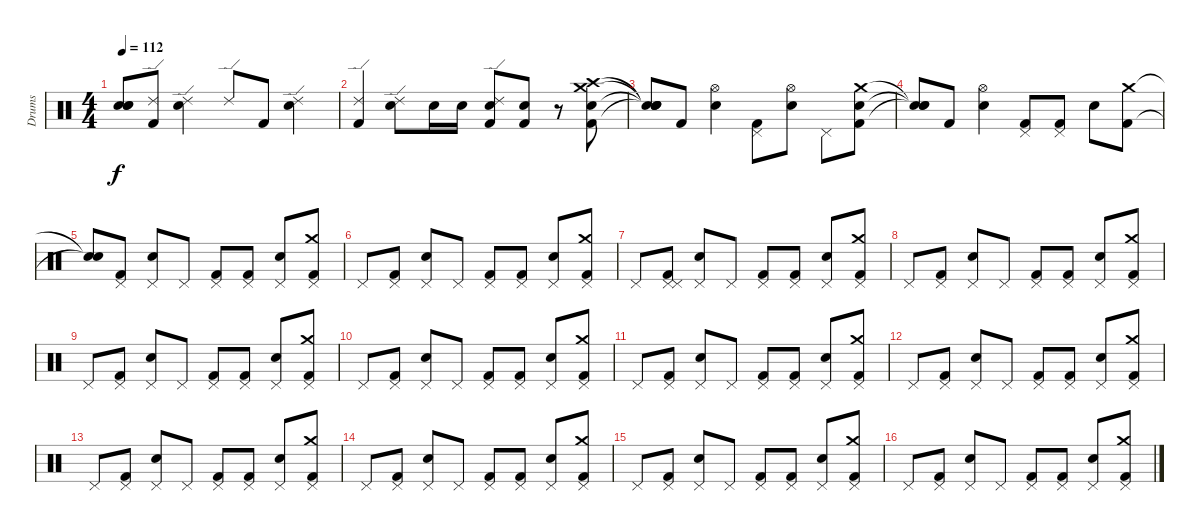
\track ("Drums" "Drums") {instrument percussion}
\staff {score}
\articulation defaults
\ts (4 4)
\tempo 112
\clef neutral
\ks c
("Snare (hit)"{t} "Snare (hit)"{t} "Snare (hit)"{t}).8{dy f} ("Kick (hit) 2" "Ride (edge) 2").8 ("Snare (hit) 2" "Ride (edge) 2").4 "Ride (edge) 2".8 "Kick (hit) 2".8 ("Snare (hit) 2" "Ride (edge) 2").4 |
("Kick (hit) 2" "Ride (edge) 2").4 ("Snare (hit) 2" "Ride (edge) 2").8 "Snare (hit) 2".16 "Snare (hit) 2".16 ("Kick (hit) 2" "Snare (hit) 2" "Ride (edge) 2").8 ("Kick (hit) 2" "Snare (hit) 2").8 r.8 ("Crash medium (hit)" "Snare (hit) 2" "Kick (hit) 2" "Crash high (hit)").8 |
("Snare (hit)"{t} "Snare (hit)"{t} "Snare (hit)"{t} "Snare (hit)"{t}).8 "Kick (hit) 2".8 ("Hi-Hat (open)" "Snare (hit) 2").4 ("Pedal Hi-Hat (hit)" "Kick (hit) 2").8 ("Hi-Hat (open)" "Snare (hit) 2").8 "Pedal Hi-Hat (hit)".8 ("Crash medium (hit)" "Snare (hit) 2" "Kick (hit) 2").8 |
("Snare (hit)"{t} "Snare (hit)"{t} "Snare (hit)"{t}).8 "Kick (hit) 2".8 ("Hi-Hat (open)" "Snare (hit) 2").4 ("Kick (hit) 2" "Pedal Hi-Hat (hit)").8 ("Kick (hit) 2" "Pedal Hi-Hat (hit)").8 "Snare (hit) 2".8 ("Crash medium (hit)" "Kick (hit) 2").8 |
("Snare (hit)"{t} "Snare (hit)"{t}).8 ("Pedal Hi-Hat (hit)" "Kick (hit) 2").8 ("Pedal Hi-Hat (hit)" "Snare (hit) 2").8 "Pedal Hi-Hat (hit)".8 ("Pedal Hi-Hat (hit)" "Kick (hit) 2").8 ("Pedal Hi-Hat (hit)" "Kick (hit) 2").8 ("Pedal Hi-Hat (hit)" "Snare (hit) 2").8 ("Pedal Hi-Hat (hit)" "Crash medium (hit)" "Kick (hit) 2").8 |
"Pedal Hi-Hat (hit)".8 ("Pedal Hi-Hat (hit)" "Kick (hit) 2").8 ("Pedal Hi-Hat (hit)" "Snare (hit) 2").8 "Pedal Hi-Hat (hit)".8 ("Pedal Hi-Hat (hit)" "Kick (hit) 2").8 ("Pedal Hi-Hat (hit)" "Kick (hit) 2").8 ("Pedal Hi-Hat (hit)" "Snare (hit) 2").8 ("Pedal Hi-Hat (hit)" "Crash medium (hit)" "Kick (hit) 2").8 |
"Pedal Hi-Hat (hit)".8 ("Pedal Hi-Hat (hit)" "Pedal Hi-Hat (hit)" "Kick (hit) 2").8 ("Pedal Hi-Hat (hit)" "Snare (hit) 2").8 "Pedal Hi-Hat (hit)".8 ("Pedal Hi-Hat (hit)" "Kick (hit) 2").8 ("Pedal Hi-Hat (hit)" "Kick (hit) 2").8 ("Pedal Hi-Hat (hit)" "Snare (hit) 2").8 ("Pedal Hi-Hat (hit)" "Crash medium (hit)" "Kick (hit) 2").8 |
"Pedal Hi-Hat (hit)".8 ("Pedal Hi-Hat (hit)" "Kick (hit) 2").8 ("Pedal Hi-Hat (hit)" "Snare (hit) 2").8 "Pedal Hi-Hat (hit)".8 ("Pedal Hi-Hat (hit)" "Kick (hit) 2").8 ("Pedal Hi-Hat (hit)" "Kick (hit) 2").8 ("Pedal Hi-Hat (hit)" "Snare (hit) 2").8 ("Pedal Hi-Hat (hit)" "Crash medium (hit)" "Kick (hit) 2").8 |
"Pedal Hi-Hat (hit)".8 ("Pedal Hi-Hat (hit)" "Kick (hit) 2").8 ("Pedal Hi-Hat (hit)" "Snare (hit) 2").8 "Pedal Hi-Hat (hit)".8 ("Pedal Hi-Hat (hit)" "Kick (hit) 2").8 ("Pedal Hi-Hat (hit)" "Kick (hit) 2").8 ("Pedal Hi-Hat (hit)" "Snare (hit) 2").8 ("Pedal Hi-Hat (hit)" "Crash medium (hit)" "Kick (hit) 2").8 |
"Pedal Hi-Hat (hit)".8 ("Pedal Hi-Hat (hit)" "Kick (hit) 2").8 ("Pedal Hi-Hat (hit)" "Snare (hit) 2").8 "Pedal Hi-Hat (hit)".8 ("Pedal Hi-Hat (hit)" "Kick (hit) 2").8 ("Pedal Hi-Hat (hit)" "Kick (hit) 2").8 ("Pedal Hi-Hat (hit)" "Snare (hit) 2").8 ("Pedal Hi-Hat (hit)" "Crash medium (hit)" "Kick (hit) 2").8 |
"Pedal Hi-Hat (hit)".8 ("Pedal Hi-Hat (hit)" "Kick (hit) 2").8 ("Pedal Hi-Hat (hit)" "Snare (hit) 2").8 "Pedal Hi-Hat (hit)".8 ("Pedal Hi-Hat (hit)" "Kick (hit) 2").8 ("Pedal Hi-Hat (hit)" "Kick (hit) 2").8 ("Pedal Hi-Hat (hit)" "Snare (hit) 2").8 ("Pedal Hi-Hat (hit)" "Crash medium (hit)" "Kick (hit) 2").8 |
"Pedal Hi-Hat (hit)".8 ("Pedal Hi-Hat (hit)" "Kick (hit) 2").8 ("Pedal Hi-Hat (hit)" "Snare (hit) 2").8 "Pedal Hi-Hat (hit)".8 ("Pedal Hi-Hat (hit)" "Kick (hit) 2").8 ("Pedal Hi-Hat (hit)" "Kick (hit) 2").8 ("Pedal Hi-Hat (hit)" "Snare (hit) 2").8 ("Pedal Hi-Hat (hit)" "Crash medium (hit)" "Kick (hit) 2").8 |
"Pedal Hi-Hat (hit)".8 ("Pedal Hi-Hat (hit)" "Kick (hit) 2").8 ("Pedal Hi-Hat (hit)" "Snare (hit) 2").8 "Pedal Hi-Hat (hit)".8 ("Pedal Hi-Hat (hit)" "Kick (hit) 2").8 ("Pedal Hi-Hat (hit)" "Kick (hit) 2").8 ("Pedal Hi-Hat (hit)" "Snare (hit) 2").8 ("Pedal Hi-Hat (hit)" "Crash medium (hit)" "Kick (hit) 2").8 |
"Pedal Hi-Hat (hit)".8 ("Pedal Hi-Hat (hit)" "Kick (hit) 2").8 ("Pedal Hi-Hat (hit)" "Snare (hit) 2").8 "Pedal Hi-Hat (hit)".8 ("Pedal Hi-Hat (hit)" "Kick (hit) 2").8 ("Pedal Hi-Hat (hit)" "Kick (hit) 2").8 ("Pedal Hi-Hat (hit)" "Snare (hit) 2").8 ("Pedal Hi-Hat (hit)" "Crash medium (hit)" "Kick (hit) 2").8 |
"Pedal Hi-Hat (hit)".8 ("Pedal Hi-Hat (hit)" "Kick (hit) 2").8 ("Pedal Hi-Hat (hit)" "Snare (hit) 2").8 "Pedal Hi-Hat (hit)".8 ("Pedal Hi-Hat (hit)" "Kick (hit) 2").8 ("Pedal Hi-Hat (hit)" "Kick (hit) 2").8 ("Pedal Hi-Hat (hit)" "Snare (hit) 2").8 ("Pedal Hi-Hat (hit)" "Crash medium (hit)" "Kick (hit) 2").8 |
"Pedal Hi-Hat (hit)".8 ("Pedal Hi-Hat (hit)" "Kick (hit) 2").8 ("Pedal Hi-Hat (hit)" "Snare (hit) 2").8 "Pedal Hi-Hat (hit)".8 ("Pedal Hi-Hat (hit)" "Kick (hit) 2").8 ("Pedal Hi-Hat (hit)" "Kick (hit) 2").8 ("Pedal Hi-Hat (hit)" "Snare (hit) 2").8 ("Pedal Hi-Hat (hit)" "Crash medium (hit)" "Kick (hit) 2").8
